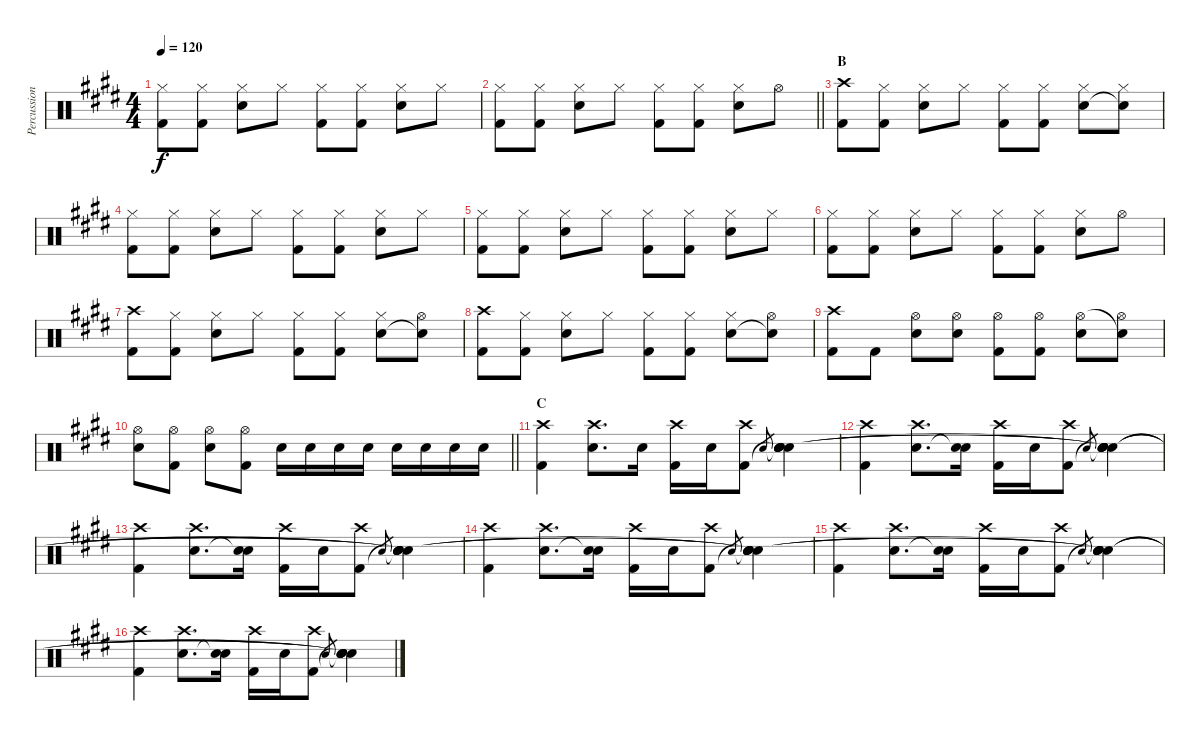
\track ("Percussion" "Percussion") {instrument percussion}
\staff {score}
\articulation defaults
\ts (4 4)
\tempo 120
\clef neutral
\ks e
("Hi-Hat (closed)" "Kick (hit) 2").8{dy f} ("Hi-Hat (closed)" "Kick (hit) 2").8 ("Hi-Hat (closed)" "Electric Snare (hit)").8 "Hi-Hat (closed)".8 ("Hi-Hat (closed)" "Kick (hit) 2").8 ("Hi-Hat (closed)" "Kick (hit) 2").8 ("Hi-Hat (closed)" "Electric Snare (hit)").8 "Hi-Hat (closed)".8 |
\barLineRight lightlight
("Hi-Hat (closed)" "Kick (hit) 2").8 ("Hi-Hat (closed)" "Kick (hit) 2").8 ("Hi-Hat (closed)" "Electric Snare (hit)").8 "Hi-Hat (closed)".8 ("Hi-Hat (closed)" "Kick (hit) 2").8 ("Hi-Hat (closed)" "Kick (hit) 2").8 ("Hi-Hat (closed)" "Electric Snare (hit)").8 "Hi-Hat (open)".8 |
\section ("" "B")
("Kick (hit) 2" "Crash high (hit)").8 ("Hi-Hat (closed)" "Kick (hit) 2").8 ("Hi-Hat (closed)" "Electric Snare (hit)").8 "Hi-Hat (closed)".8 ("Hi-Hat (closed)" "Kick (hit) 2").8 ("Hi-Hat (closed)" "Kick (hit) 2").8 ("Hi-Hat (closed)" "Electric Snare (hit)").8 ("Hi-Hat (closed)" "Snare (hit)"{t}).8 |
("Hi-Hat (closed)" "Kick (hit) 2").8 ("Hi-Hat (closed)" "Kick (hit) 2").8 ("Hi-Hat (closed)" "Electric Snare (hit)").8 "Hi-Hat (closed)".8 ("Hi-Hat (closed)" "Kick (hit) 2").8 ("Hi-Hat (closed)" "Kick (hit) 2").8 ("Hi-Hat (closed)" "Electric Snare (hit)").8 "Hi-Hat (closed)".8 |
("Hi-Hat (closed)" "Kick (hit) 2").8 ("Hi-Hat (closed)" "Kick (hit) 2").8 ("Hi-Hat (closed)" "Electric Snare (hit)").8 "Hi-Hat (closed)".8 ("Hi-Hat (closed)" "Kick (hit) 2").8 ("Hi-Hat (closed)" "Kick (hit) 2").8 ("Hi-Hat (closed)" "Electric Snare (hit)").8 "Hi-Hat (closed)".8 |
("Hi-Hat (closed)" "Kick (hit) 2").8 ("Hi-Hat (closed)" "Kick (hit) 2").8 ("Hi-Hat (closed)" "Electric Snare (hit)").8 "Hi-Hat (closed)".8 ("Hi-Hat (closed)" "Kick (hit) 2").8 ("Hi-Hat (closed)" "Kick (hit) 2").8 ("Hi-Hat (closed)" "Electric Snare (hit)").8 "Hi-Hat (open)".8 |
("Kick (hit) 2" "Crash high (hit)").8 ("Hi-Hat (closed)" "Kick (hit) 2").8 ("Hi-Hat (closed)" "Electric Snare (hit)").8 "Hi-Hat (closed)".8 ("Hi-Hat (closed)" "Kick (hit) 2").8 ("Hi-Hat (closed)" "Kick (hit) 2").8 ("Hi-Hat (closed)" "Electric Snare (hit)").8 ("Hi-Hat (open)" "Snare (hit)"{t}).8 |
("Kick (hit) 2" "Crash high (hit)").8 ("Hi-Hat (closed)" "Kick (hit) 2").8 ("Hi-Hat (closed)" "Electric Snare (hit)").8 "Hi-Hat (closed)".8 ("Hi-Hat (closed)" "Kick (hit) 2").8 ("Hi-Hat (closed)" "Kick (hit) 2").8 ("Hi-Hat (closed)" "Electric Snare (hit)").8 ("Hi-Hat (open)" "Snare (hit)"{t}).8 |
("Crash high (hit)" "Kick (hit) 2").8 "Kick (hit) 2".8 ("Hi-Hat (open)" "Electric Snare (hit)").8 ("Hi-Hat (open)" "Electric Snare (hit)").8 ("Hi-Hat (open)" "Kick (hit) 2").8 ("Hi-Hat (open)" "Kick (hit) 2").8 ("Hi-Hat (open)" "Electric Snare (hit)").8 ("Snare (hit)"{t} "Hi-Hat (open)").8 |
\barLineRight lightlight
("Hi-Hat (open)" "Electric Snare (hit)").8 ("Hi-Hat (open)" "Kick (hit) 2").8 ("Hi-Hat (open)" "Electric Snare (hit)").8 ("Hi-Hat (open)" "Kick (hit) 2").8 "Electric Snare (hit)".16 "Electric Snare (hit)".16 "Electric Snare (hit)".16 "Electric Snare (hit)".16 "Electric Snare (hit)".16 "Electric Snare (hit)".16 "Electric Snare (hit)".16 "Electric Snare (hit)".16 |
\section ("" "C")
("Crash high (hit)" "Kick (hit) 2").4 ("Crash high (hit)" "Electric Snare (hit)").8{d} "Electric Snare (hit)".16 ("Crash high (hit)" "Kick (hit) 2").16 "Electric Snare (hit)".16 ("Crash high (hit)" "Kick (hit) 2").8 "Electric Snare (hit)".8{gr} ("Snare (hit)"{t} "Snare (hit)"{t} "Snare (hit)" "Snare (hit)" "Electric Snare (hit)").4 |
("Crash high (hit)" "Kick (hit) 2").4 ("Crash high (hit)" "Electric Snare (hit)").8{d} ("Electric Snare (hit)" "Snare (hit)"{t}).16 ("Crash high (hit)" "Kick (hit) 2").16 "Electric Snare (hit)".16 ("Crash high (hit)" "Kick (hit) 2").8 "Electric Snare (hit)".8{gr} ("Snare (hit)"{t} "Snare (hit)"{t} "Snare (hit)"{t} "Snare (hit)"{t} "Electric Snare (hit)").4 |
("Crash high (hit)" "Kick (hit) 2").4 ("Crash high (hit)" "Electric Snare (hit)").8{d} ("Electric Snare (hit)" "Snare (hit)"{t}).16 ("Crash high (hit)" "Kick (hit) 2").16 "Electric Snare (hit)".16 ("Crash high (hit)" "Kick (hit) 2").8 "Electric Snare (hit)".8{gr} ("Snare (hit)"{t} "Snare (hit)"{t} "Snare (hit)"{t} "Snare (hit)"{t} "Electric Snare (hit)").4 |
("Crash high (hit)" "Kick (hit) 2").4 ("Crash high (hit)" "Electric Snare (hit)").8{d} ("Electric Snare (hit)" "Snare (hit)"{t}).16 ("Crash high (hit)" "Kick (hit) 2").16 "Electric Snare (hit)".16 ("Crash high (hit)" "Kick (hit) 2").8 "Electric Snare (hit)".8{gr} ("Snare (hit)"{t} "Snare (hit)"{t} "Snare (hit)"{t} "Snare (hit)"{t} "Electric Snare (hit)").4 |
("Crash high (hit)" "Kick (hit) 2").4 ("Crash high (hit)" "Electric Snare (hit)").8{d} ("Electric Snare (hit)" "Snare (hit)"{t}).16 ("Crash high (hit)" "Kick (hit) 2").16 "Electric Snare (hit)".16 ("Crash high (hit)" "Kick (hit) 2").8 "Electric Snare (hit)".8{gr} ("Snare (hit)"{t} "Snare (hit)"{t} "Snare (hit)"{t} "Snare (hit)"{t} "Electric Snare (hit)").4 |
("Crash high (hit)" "Kick (hit) 2").4 ("Crash high (hit)" "Electric Snare (hit)").8{d} ("Electric Snare (hit)" "Snare (hit)"{t}).16 ("Crash high (hit)" "Kick (hit) 2").16 "Electric Snare (hit)".16 ("Crash high (hit)" "Kick (hit) 2").8 "Electric Snare (hit)".8{gr} ("Snare (hit)"{t} "Snare (hit)"{t} "Snare (hit)"{t} "Snare (hit)"{t} "Electric Snare (hit)").4
